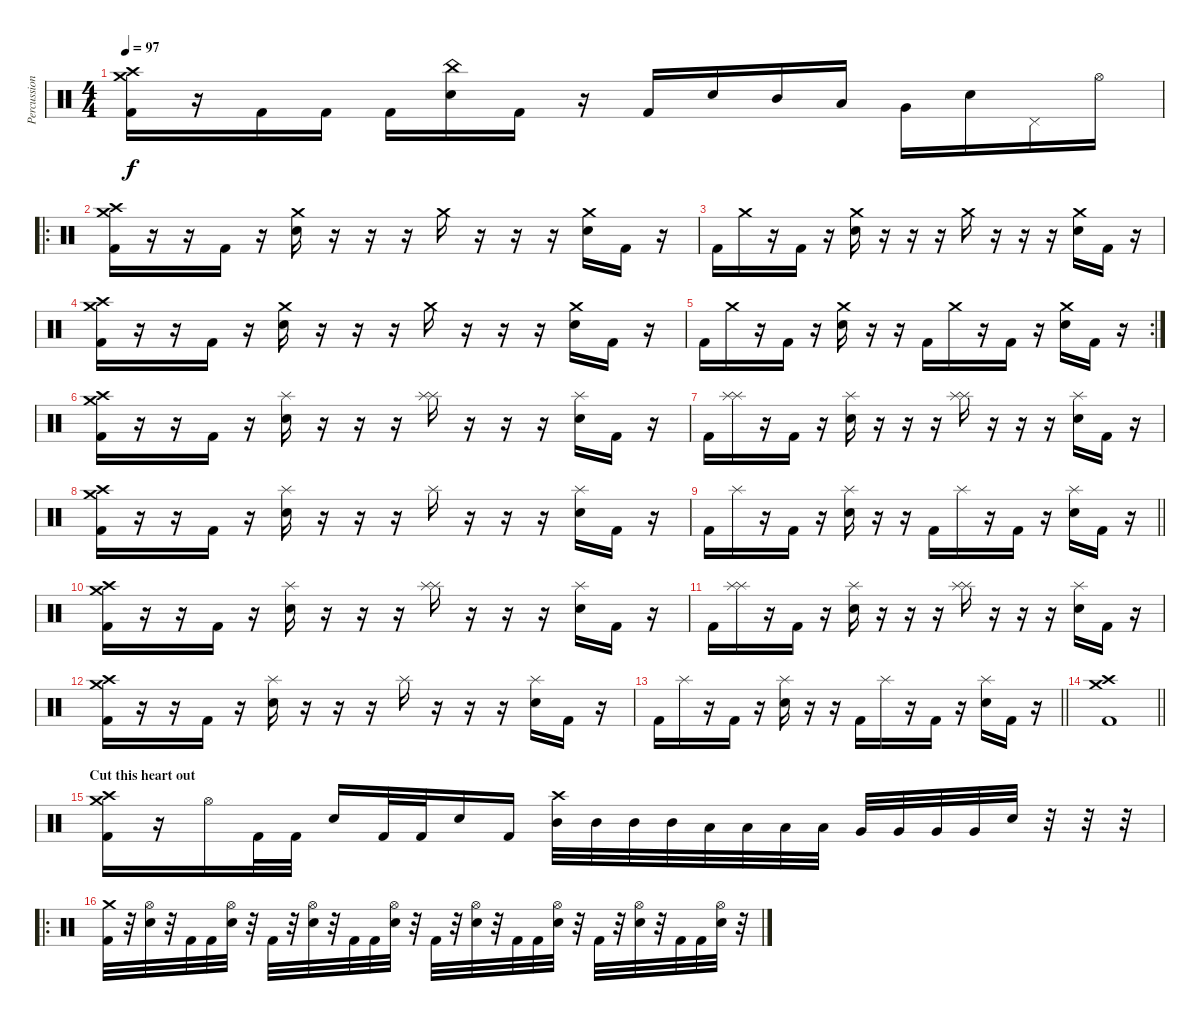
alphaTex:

\track ("Percussion" "Percussion") {instrument percussion}
\staff {score}
\articulation defaults
\ts (4 4)
\tempo 97
\clef neutral
\ks c
("Crash medium (hit)" "Crash high (hit)" "Kick (hit) 2").16{dy f} r.16 "Kick (hit) 2".16 "Kick (hit) 2".16 "Kick (hit) 2".16 ("China (hit)" "Snare (hit) 2").16 "Kick (hit) 2".16 r.16 "Kick (hit) 2".16 "Snare (hit) 2".16 "Mid Tom (hit)".16 "Low Tom (hit)".16 "Very Low Tom (hit)".16 "Snare (hit) 2".16 "Pedal Hi-Hat (hit)".16 "Hi-Hat (open)".16 |
\ro
("Crash medium (hit)" "Crash high (hit)" "Kick (hit) 2").16 r.16 r.16 "Kick (hit) 2".16 r.16 ("Crash medium (hit)" "Snare (hit) 2").16 r.16 r.16 r.16 "Crash medium (hit)".16 r.16 r.16 r.16 ("Crash medium (hit)" "Snare (hit) 2").16 "Kick (hit) 2".16 r.16 |
"Kick (hit) 2".16 "Crash medium (hit)".16 r.16 "Kick (hit) 2".16 r.16 ("Crash medium (hit)" "Snare (hit) 2").16 r.16 r.16 r.16 "Crash medium (hit)".16 r.16 r.16 r.16 ("Crash medium (hit)" "Snare (hit) 2").16 "Kick (hit) 2".16 r.16 |
("Crash medium (hit)" "Crash high (hit)" "Kick (hit) 2").16 r.16 r.16 "Kick (hit) 2".16 r.16 ("Crash medium (hit)" "Snare (hit) 2").16 r.16 r.16 r.16 "Crash medium (hit)".16 r.16 r.16 r.16 ("Crash medium (hit)" "Snare (hit) 2").16 "Kick (hit) 2".16 r.16 |
\rc 2 "Kick (hit) 2".16 "Crash medium (hit)".16
r.16 "Kick (hit) 2".16 r.16 ("Crash medium (hit)" "Snare (hit) 2").16 r.16 r.16 "Kick (hit) 2".16 "Crash medium (hit)".16 r.16 "Kick (hit) 2".16 r.16 ("Crash medium (hit)" "Snare (hit) 2").16 "Kick (hit) 2".16 r.16 |
("Crash medium (hit)" "Crash high (hit)" "Kick (hit) 2").16 r.16 r.16 "Kick (hit) 2".16 r.16 ("Splash (hit)" "Snare (hit) 2").16 r.16 r.16 r.16 ("Splash (hit)" "Splash (hit)").16 r.16 r.16 r.16 ("Splash (hit)" "Snare (hit) 2").16 "Kick (hit) 2".16 r.16 |
"Kick (hit) 2".16 ("Splash (hit)" "Splash (hit)").16 r.16 "Kick (hit) 2".16 r.16 ("Splash (hit)" "Snare (hit) 2").16 r.16 r.16 r.16 ("Splash (hit)" "Splash (hit)").16 r.16 r.16 r.16 ("Splash (hit)" "Snare (hit) 2").16 "Kick (hit) 2".16 r.16 |
("Crash medium (hit)" "Crash high (hit)" "Kick (hit) 2").16 r.16 r.16 "Kick (hit) 2".16 r.16 ("Splash (hit)" "Snare (hit) 2").16 r.16 r.16 r.16 "Splash (hit)".16 r.16 r.16 r.16 ("Splash (hit)" "Snare (hit) 2").16 "Kick (hit) 2".16 r.16 |
\barLineRight lightlight "Kick (hit) 2".16 "Splash (hit)".16
r.16 "Kick (hit) 2".16 r.16 ("Splash (hit)" "Snare (hit) 2").16 r.16 r.16 "Kick (hit) 2".16 "Splash (hit)".16 r.16 "Kick (hit) 2".16 r.16 ("Splash (hit)" "Snare (hit) 2").16 "Kick (hit) 2".16 r.16 |
\section ("" "")
("Crash medium (hit)" "Crash high (hit)" "Kick (hit) 2").16 r.16 r.16 "Kick (hit) 2".16 r.16 ("Splash (hit)" "Snare (hit) 2").16 r.16 r.16 r.16 ("Splash (hit)" "Splash (hit)").16 r.16 r.16 r.16 ("Splash (hit)" "Snare (hit) 2").16 "Kick (hit) 2".16 r.16 |
"Kick (hit) 2".16 ("Splash (hit)" "Splash (hit)").16 r.16 "Kick (hit) 2".16 r.16 ("Splash (hit)" "Snare (hit) 2").16 r.16 r.16 r.16 ("Splash (hit)" "Splash (hit)").16 r.16 r.16 r.16 ("Splash (hit)" "Snare (hit) 2").16 "Kick (hit) 2".16 r.16 |
("Crash medium (hit)" "Crash high (hit)" "Kick (hit) 2").16 r.16 r.16 "Kick (hit) 2".16 r.16 ("Splash (hit)" "Snare (hit) 2").16 r.16 r.16 r.16 "Splash (hit)".16 r.16 r.16 r.16 ("Splash (hit)" "Snare (hit) 2").16 "Kick (hit) 2".16 r.16 |
\barLineRight lightlight "Kick (hit) 2".16 "Splash (hit)".16
r.16 "Kick (hit) 2".16 r.16 ("Splash (hit)" "Snare (hit) 2").16 r.16 r.16 "Kick (hit) 2".16 "Splash (hit)".16 r.16 "Kick (hit) 2".16 r.16 ("Splash (hit)" "Snare (hit) 2").16 "Kick (hit) 2".16 r.16 |
\barLineRight lightlight
("Crash high (hit)" "Crash medium (hit)" "Kick (hit) 2").1 |
\section ("" "Cut this heart out")
("Crash high (hit)" "Crash medium (hit)" "Kick (hit) 2").16 r.16 "Hi-Hat (open)".16 "Kick (hit) 2".32 "Kick (hit) 2".32 "Snare (hit) 2".16 "Kick (hit) 2".32 "Kick (hit) 2".32 "Snare (hit) 2".16 "Kick (hit) 2".16 ("Crash high (hit)" "Mid Tom (hit)").32 "Mid Tom (hit)".32 "Mid Tom (hit)".32 "Mid Tom (hit)".32 "Low Tom (hit)".32 "Low Tom (hit)".32 "Low Tom (hit)".32 "Low Tom (hit)".32 "Very Low Tom (hit)".32 "Very Low Tom (hit)".32 "Very Low Tom (hit)".32 "Very Low Tom (hit)".32 "Snare (hit) 2".32 r.32 r.32 r.32 |
\ro
("Crash medium (hit)" "Kick (hit) 2").32 r.32 ("Hi-Hat (open)" "Snare (hit) 2").32 r.32 "Kick (hit) 2".32 "Kick (hit) 2".32 ("Hi-Hat (open)" "Snare (hit) 2").32 r.32 "Kick (hit) 2".32 r.32 ("Hi-Hat (open)" "Snare (hit) 2").32 r.32 "Kick (hit) 2".32 "Kick (hit) 2".32 ("Hi-Hat (open)" "Snare (hit) 2").32 r.32 "Kick (hit) 2".32 r.32 ("Hi-Hat (open)" "Snare (hit) 2").32 r.32 "Kick (hit) 2".32 "Kick (hit) 2".32 ("Hi-Hat (open)" "Snare (hit) 2").32 r.32 "Kick (hit) 2".32 r.32 ("Hi-Hat (open)" "Snare (hit) 2").32 r.32 "Kick (hit) 2".32 "Kick (hit) 2".32 ("Hi-Hat (open)" "Snare (hit) 2").32 r.32
